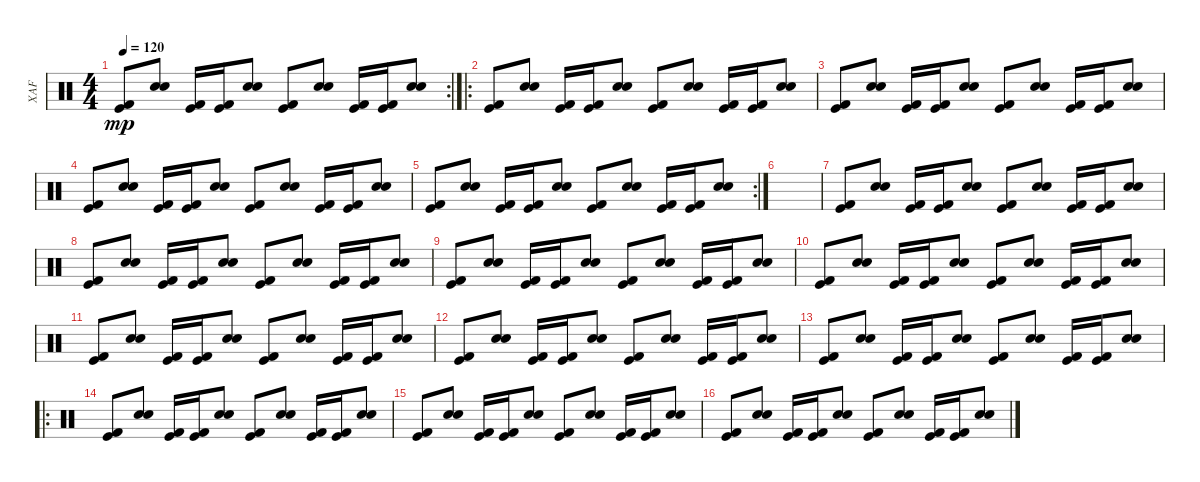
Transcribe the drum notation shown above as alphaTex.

\track ("XAF" "XAF") {instrument percussion}
\staff {score}
\articulation defaults
\rc 2
\ts (4 4)
\tempo 120
\clef neutral
\ks c
("Kick (hit) 2" "Kick (hit)").8{dy mp} ("Electric Snare (hit)" "Snare (hit) 2").8 ("Kick (hit) 2" "Kick (hit)").16 ("Kick (hit) 2" "Kick (hit)").16 ("Electric Snare (hit)" "Snare (hit) 2").8 ("Kick (hit) 2" "Kick (hit)").8 ("Electric Snare (hit)" "Snare (hit) 2").8 ("Kick (hit) 2" "Kick (hit)").16 ("Kick (hit) 2" "Kick (hit)").16 ("Electric Snare (hit)" "Snare (hit) 2").8 |
\ro
("Kick (hit) 2" "Kick (hit)").8 ("Electric Snare (hit)" "Snare (hit) 2").8 ("Kick (hit) 2" "Kick (hit)").16 ("Kick (hit) 2" "Kick (hit)").16 ("Electric Snare (hit)" "Snare (hit) 2").8 ("Kick (hit) 2" "Kick (hit)").8 ("Electric Snare (hit)" "Snare (hit) 2").8 ("Kick (hit) 2" "Kick (hit)").16 ("Kick (hit) 2" "Kick (hit)").16 ("Electric Snare (hit)" "Snare (hit) 2").8 |
("Kick (hit) 2" "Kick (hit)").8 ("Electric Snare (hit)" "Snare (hit) 2").8 ("Kick (hit) 2" "Kick (hit)").16 ("Kick (hit) 2" "Kick (hit)").16 ("Electric Snare (hit)" "Snare (hit) 2").8 ("Kick (hit) 2" "Kick (hit)").8 ("Electric Snare (hit)" "Snare (hit) 2").8 ("Kick (hit) 2" "Kick (hit)").16 ("Kick (hit) 2" "Kick (hit)").16 ("Electric Snare (hit)" "Snare (hit) 2").8 |
("Kick (hit) 2" "Kick (hit)").8 ("Electric Snare (hit)" "Snare (hit) 2").8 ("Kick (hit) 2" "Kick (hit)").16 ("Kick (hit) 2" "Kick (hit)").16 ("Electric Snare (hit)" "Snare (hit) 2").8 ("Kick (hit) 2" "Kick (hit)").8 ("Electric Snare (hit)" "Snare (hit) 2").8 ("Kick (hit) 2" "Kick (hit)").16 ("Kick (hit) 2" "Kick (hit)").16 ("Electric Snare (hit)" "Snare (hit) 2").8 |
\rc 2
("Kick (hit) 2" "Kick (hit)").8 ("Electric Snare (hit)" "Snare (hit) 2").8 ("Kick (hit) 2" "Kick (hit)").16 ("Kick (hit) 2" "Kick (hit)").16 ("Electric Snare (hit)" "Snare (hit) 2").8 ("Kick (hit) 2" "Kick (hit)").8 ("Electric Snare (hit)" "Snare (hit) 2").8 ("Kick (hit) 2" "Kick (hit)").16 ("Kick (hit) 2" "Kick (hit)").16 ("Electric Snare (hit)" "Snare (hit) 2").8 |
|
("Kick (hit) 2" "Kick (hit)").8 ("Electric Snare (hit)" "Snare (hit) 2").8 ("Kick (hit) 2" "Kick (hit)").16 ("Kick (hit) 2" "Kick (hit)").16 ("Electric Snare (hit)" "Snare (hit) 2").8 ("Kick (hit) 2" "Kick (hit)").8 ("Electric Snare (hit)" "Snare (hit) 2").8 ("Kick (hit) 2" "Kick (hit)").16 ("Kick (hit) 2" "Kick (hit)").16 ("Electric Snare (hit)" "Snare (hit) 2").8 |
("Kick (hit) 2" "Kick (hit)").8 ("Electric Snare (hit)" "Snare (hit) 2").8 ("Kick (hit) 2" "Kick (hit)").16 ("Kick (hit) 2" "Kick (hit)").16 ("Electric Snare (hit)" "Snare (hit) 2").8 ("Kick (hit) 2" "Kick (hit)").8 ("Electric Snare (hit)" "Snare (hit) 2").8 ("Kick (hit) 2" "Kick (hit)").16 ("Kick (hit) 2" "Kick (hit)").16 ("Electric Snare (hit)" "Snare (hit) 2").8 |
("Kick (hit) 2" "Kick (hit)").8 ("Electric Snare (hit)" "Snare (hit) 2").8 ("Kick (hit) 2" "Kick (hit)").16 ("Kick (hit) 2" "Kick (hit)").16 ("Electric Snare (hit)" "Snare (hit) 2").8 ("Kick (hit) 2" "Kick (hit)").8 ("Electric Snare (hit)" "Snare (hit) 2").8 ("Kick (hit) 2" "Kick (hit)").16 ("Kick (hit) 2" "Kick (hit)").16 ("Electric Snare (hit)" "Snare (hit) 2").8 |
("Kick (hit) 2" "Kick (hit)").8 ("Electric Snare (hit)" "Snare (hit) 2").8 ("Kick (hit) 2" "Kick (hit)").16 ("Kick (hit) 2" "Kick (hit)").16 ("Electric Snare (hit)" "Snare (hit) 2").8 ("Kick (hit) 2" "Kick (hit)").8 ("Electric Snare (hit)" "Snare (hit) 2").8 ("Kick (hit) 2" "Kick (hit)").16 ("Kick (hit) 2" "Kick (hit)").16 ("Electric Snare (hit)" "Snare (hit) 2").8 |
("Kick (hit) 2" "Kick (hit)").8 ("Electric Snare (hit)" "Snare (hit) 2").8 ("Kick (hit) 2" "Kick (hit)").16 ("Kick (hit) 2" "Kick (hit)").16 ("Electric Snare (hit)" "Snare (hit) 2").8 ("Kick (hit) 2" "Kick (hit)").8 ("Electric Snare (hit)" "Snare (hit) 2").8 ("Kick (hit) 2" "Kick (hit)").16 ("Kick (hit) 2" "Kick (hit)").16 ("Electric Snare (hit)" "Snare (hit) 2").8 |
("Kick (hit) 2" "Kick (hit)").8 ("Electric Snare (hit)" "Snare (hit) 2").8 ("Kick (hit) 2" "Kick (hit)").16 ("Kick (hit) 2" "Kick (hit)").16 ("Electric Snare (hit)" "Snare (hit) 2").8 ("Kick (hit) 2" "Kick (hit)").8 ("Electric Snare (hit)" "Snare (hit) 2").8 ("Kick (hit) 2" "Kick (hit)").16 ("Kick (hit) 2" "Kick (hit)").16 ("Electric Snare (hit)" "Snare (hit) 2").8 |
("Kick (hit) 2" "Kick (hit)").8 ("Electric Snare (hit)" "Snare (hit) 2").8 ("Kick (hit) 2" "Kick (hit)").16 ("Kick (hit) 2" "Kick (hit)").16 ("Electric Snare (hit)" "Snare (hit) 2").8 ("Kick (hit) 2" "Kick (hit)").8 ("Electric Snare (hit)" "Snare (hit) 2").8 ("Kick (hit) 2" "Kick (hit)").16 ("Kick (hit) 2" "Kick (hit)").16 ("Electric Snare (hit)" "Snare (hit) 2").8 |
\ro
("Kick (hit) 2" "Kick (hit)").8 ("Electric Snare (hit)" "Snare (hit) 2").8 ("Kick (hit) 2" "Kick (hit)").16 ("Kick (hit) 2" "Kick (hit)").16 ("Electric Snare (hit)" "Snare (hit) 2").8 ("Kick (hit) 2" "Kick (hit)").8 ("Electric Snare (hit)" "Snare (hit) 2").8 ("Kick (hit) 2" "Kick (hit)").16 ("Kick (hit) 2" "Kick (hit)").16 ("Electric Snare (hit)" "Snare (hit) 2").8 |
("Kick (hit) 2" "Kick (hit)").8 ("Electric Snare (hit)" "Snare (hit) 2").8 ("Kick (hit) 2" "Kick (hit)").16 ("Kick (hit) 2" "Kick (hit)").16 ("Electric Snare (hit)" "Snare (hit) 2").8 ("Kick (hit) 2" "Kick (hit)").8 ("Electric Snare (hit)" "Snare (hit) 2").8 ("Kick (hit) 2" "Kick (hit)").16 ("Kick (hit) 2" "Kick (hit)").16 ("Electric Snare (hit)" "Snare (hit) 2").8 |
("Kick (hit) 2" "Kick (hit)").8 ("Electric Snare (hit)" "Snare (hit) 2").8 ("Kick (hit) 2" "Kick (hit)").16 ("Kick (hit) 2" "Kick (hit)").16 ("Electric Snare (hit)" "Snare (hit) 2").8 ("Kick (hit) 2" "Kick (hit)").8 ("Electric Snare (hit)" "Snare (hit) 2").8 ("Kick (hit) 2" "Kick (hit)").16 ("Kick (hit) 2" "Kick (hit)").16 ("Electric Snare (hit)" "Snare (hit) 2").8
